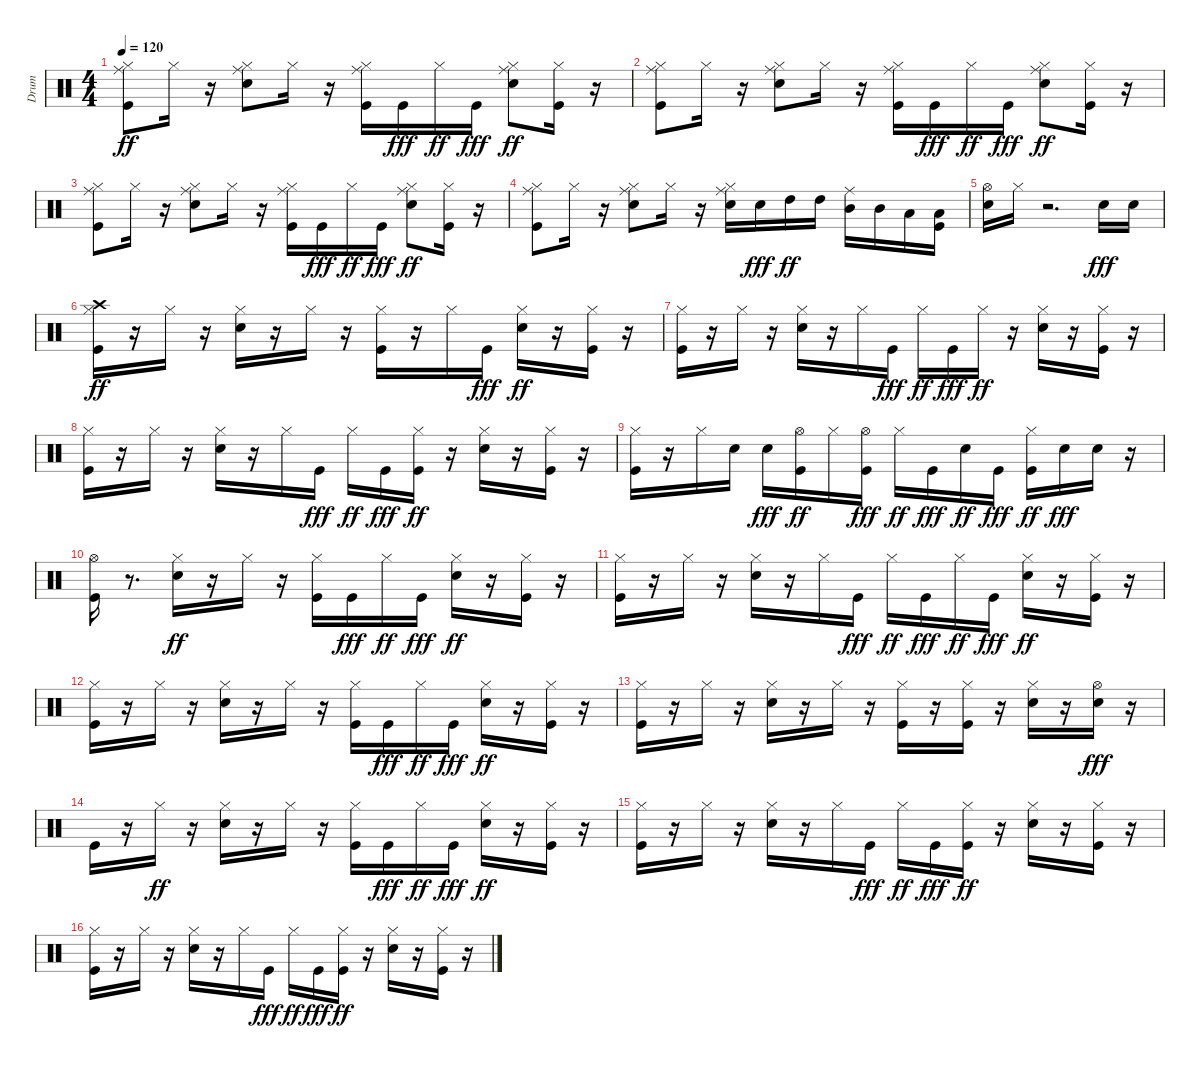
\track ("Drum" "Drum") {instrument percussion}
\staff {score}
\articulation defaults
\ts (4 4)
\tempo 120
\clef neutral
\ks c
("Kick (hit)" "Hi-Hat (closed)" "Ride (middle)").8{dy ff} "Hi-Hat (closed)".16 r.16 ("Electric Snare (hit)" "Hi-Hat (closed)" "Ride (middle)").8 "Hi-Hat (closed)".16 r.16 ("Kick (hit)" "Hi-Hat (closed)" "Ride (middle)").16 "Kick (hit)".16{dy fff} "Hi-Hat (closed)".16{dy ff} "Kick (hit)".16{dy fff} ("Electric Snare (hit)" "Hi-Hat (closed)" "Ride (middle)").8{dy ff} ("Kick (hit)" "Hi-Hat (closed)").16 r.16 |
("Kick (hit)" "Hi-Hat (closed)" "Ride (middle)").8 "Hi-Hat (closed)".16 r.16 ("Electric Snare (hit)" "Hi-Hat (closed)" "Ride (middle)").8 "Hi-Hat (closed)".16 r.16 ("Kick (hit)" "Hi-Hat (closed)" "Ride (middle)").16 "Kick (hit)".16{dy fff} "Hi-Hat (closed)".16{dy ff} "Kick (hit)".16{dy fff} ("Electric Snare (hit)" "Hi-Hat (closed)" "Ride (middle)").8{dy ff} ("Kick (hit)" "Hi-Hat (closed)").16 r.16 |
("Kick (hit)" "Hi-Hat (closed)" "Ride (middle)").8 "Hi-Hat (closed)".16 r.16 ("Electric Snare (hit)" "Hi-Hat (closed)" "Ride (middle)").8 "Hi-Hat (closed)".16 r.16 ("Kick (hit)" "Hi-Hat (closed)" "Ride (middle)").16 "Kick (hit)".16{dy fff} "Hi-Hat (closed)".16{dy ff} "Kick (hit)".16{dy fff} ("Electric Snare (hit)" "Hi-Hat (closed)" "Ride (middle)").8{dy ff} ("Kick (hit)" "Hi-Hat (closed)").16 r.16 |
("Kick (hit)" "Hi-Hat (closed)" "Ride (middle)").8 "Hi-Hat (closed)".16 r.16 ("Electric Snare (hit)" "Hi-Hat (closed)" "Ride (middle)").8 "Hi-Hat (closed)".16 r.16 ("Electric Snare (hit)" "Hi-Hat (closed)" "Ride (middle)").16 "Electric Snare (hit)".16{dy fff} "High Tom (hit)".16{dy ff} "High Tom (hit)".16 ("Mid Tom (hit)" "Ride (middle)").16 "Mid Tom (hit)".16 "Low Tom (hit)".16 ("Low Tom (hit)" "Kick (hit)").16 |
("Electric Snare (hit)" "Hi-Hat (open)").16 "Hi-Hat (closed)".16 r.2{d} "Electric Snare (hit)".16{dy fff} "Electric Snare (hit)".16 |
("Crash high (hit)" "Kick (hit)" "Hi-Hat (closed)").16{dy ff} r.16 "Hi-Hat (closed)".16 r.16 ("Electric Snare (hit)" "Hi-Hat (closed)").16 r.16 "Hi-Hat (closed)".16 r.16 ("Kick (hit)" "Hi-Hat (closed)").16 r.16 "Hi-Hat (closed)".16 "Kick (hit)".16{dy fff} ("Electric Snare (hit)" "Hi-Hat (closed)").16{dy ff} r.16 ("Kick (hit)" "Hi-Hat (closed)").16 r.16 |
("Kick (hit)" "Hi-Hat (closed)").16 r.16 "Hi-Hat (closed)".16 r.16 ("Electric Snare (hit)" "Hi-Hat (closed)").16 r.16 "Hi-Hat (closed)".16 "Kick (hit)".16{dy fff} "Hi-Hat (closed)".16{dy ff} "Kick (hit)".16{dy fff} "Hi-Hat (closed)".16{dy ff} r.16 ("Electric Snare (hit)" "Hi-Hat (closed)").16 r.16 ("Kick (hit)" "Hi-Hat (closed)").16 r.16 |
("Kick (hit)" "Hi-Hat (closed)").16 r.16 "Hi-Hat (closed)".16 r.16 ("Electric Snare (hit)" "Hi-Hat (closed)").16 r.16 "Hi-Hat (closed)".16 "Kick (hit)".16{dy fff} "Hi-Hat (closed)".16{dy ff} "Kick (hit)".16{dy fff} ("Kick (hit)" "Hi-Hat (closed)").16{dy ff} r.16 ("Electric Snare (hit)" "Hi-Hat (closed)").16 r.16 ("Kick (hit)" "Hi-Hat (closed)").16 r.16 |
("Kick (hit)" "Hi-Hat (closed)").16 r.16 "Hi-Hat (closed)".16 "Electric Snare (hit)".16 "Electric Snare (hit)".16{dy fff} ("Hi-Hat (open)" "Kick (hit)").16{dy ff} "Hi-Hat (closed)".16 ("Hi-Hat (open)" "Kick (hit)").16{dy fff} "Hi-Hat (closed)".16{dy ff} "Kick (hit)".16{dy fff} "Electric Snare (hit)".16{dy ff} "Kick (hit)".16{dy fff} ("Kick (hit)" "Hi-Hat (closed)").16{dy ff} "Electric Snare (hit)".16{dy fff} "Electric Snare (hit)".16 r.16 |
("Hi-Hat (open)" "Kick (hit)").16 r.8{d} ("Electric Snare (hit)" "Hi-Hat (closed)").16{dy ff} r.16 "Hi-Hat (closed)".16 r.16 ("Kick (hit)" "Hi-Hat (closed)").16 "Kick (hit)".16{dy fff} "Hi-Hat (closed)".16{dy ff} "Kick (hit)".16{dy fff} ("Electric Snare (hit)" "Hi-Hat (closed)").16{dy ff} r.16 ("Kick (hit)" "Hi-Hat (closed)").16 r.16 |
("Kick (hit)" "Hi-Hat (closed)").16 r.16 "Hi-Hat (closed)".16 r.16 ("Electric Snare (hit)" "Hi-Hat (closed)").16 r.16 "Hi-Hat (closed)".16 "Kick (hit)".16{dy fff} "Hi-Hat (closed)".16{dy ff} "Kick (hit)".16{dy fff} "Hi-Hat (closed)".16{dy ff} "Kick (hit)".16{dy fff} ("Electric Snare (hit)" "Hi-Hat (closed)").16{dy ff} r.16 ("Kick (hit)" "Hi-Hat (closed)").16 r.16 |
("Kick (hit)" "Hi-Hat (closed)").16 r.16 "Hi-Hat (closed)".16 r.16 ("Electric Snare (hit)" "Hi-Hat (closed)").16 r.16 "Hi-Hat (closed)".16 r.16 ("Kick (hit)" "Hi-Hat (closed)").16 "Kick (hit)".16{dy fff} "Hi-Hat (closed)".16{dy ff} "Kick (hit)".16{dy fff} ("Electric Snare (hit)" "Hi-Hat (closed)").16{dy ff} r.16 ("Kick (hit)" "Hi-Hat (closed)").16 r.16 |
("Kick (hit)" "Hi-Hat (closed)").16 r.16 "Hi-Hat (closed)".16 r.16 ("Electric Snare (hit)" "Hi-Hat (closed)").16 r.16 "Hi-Hat (closed)".16 r.16 ("Kick (hit)" "Hi-Hat (closed)").16 r.16 ("Kick (hit)" "Hi-Hat (closed)").16 r.16 ("Electric Snare (hit)" "Hi-Hat (closed)").16 r.16 ("Hi-Hat (open)" "Electric Snare (hit)").16{dy fff} r.16 |
"Kick (hit)".16 r.16 "Hi-Hat (closed)".16{dy ff} r.16 ("Electric Snare (hit)" "Hi-Hat (closed)").16 r.16 "Hi-Hat (closed)".16 r.16 ("Kick (hit)" "Hi-Hat (closed)").16 "Kick (hit)".16{dy fff} "Hi-Hat (closed)".16{dy ff} "Kick (hit)".16{dy fff} ("Electric Snare (hit)" "Hi-Hat (closed)").16{dy ff} r.16 ("Kick (hit)" "Hi-Hat (closed)").16 r.16 |
("Kick (hit)" "Hi-Hat (closed)").16 r.16 "Hi-Hat (closed)".16 r.16 ("Electric Snare (hit)" "Hi-Hat (closed)").16 r.16 "Hi-Hat (closed)".16 "Kick (hit)".16{dy fff} "Hi-Hat (closed)".16{dy ff} "Kick (hit)".16{dy fff} ("Kick (hit)" "Hi-Hat (closed)").16{dy ff} r.16 ("Electric Snare (hit)" "Hi-Hat (closed)").16 r.16 ("Kick (hit)" "Hi-Hat (closed)").16 r.16 |
("Kick (hit)" "Hi-Hat (closed)").16 r.16 "Hi-Hat (closed)".16 r.16 ("Electric Snare (hit)" "Hi-Hat (closed)").16 r.16 "Hi-Hat (closed)".16 "Kick (hit)".16{dy fff} "Hi-Hat (closed)".16{dy ff} "Kick (hit)".16{dy fff} ("Kick (hit)" "Hi-Hat (closed)").16{dy ff} r.16 ("Electric Snare (hit)" "Hi-Hat (closed)").16 r.16 ("Kick (hit)" "Hi-Hat (closed)").16 r.16
